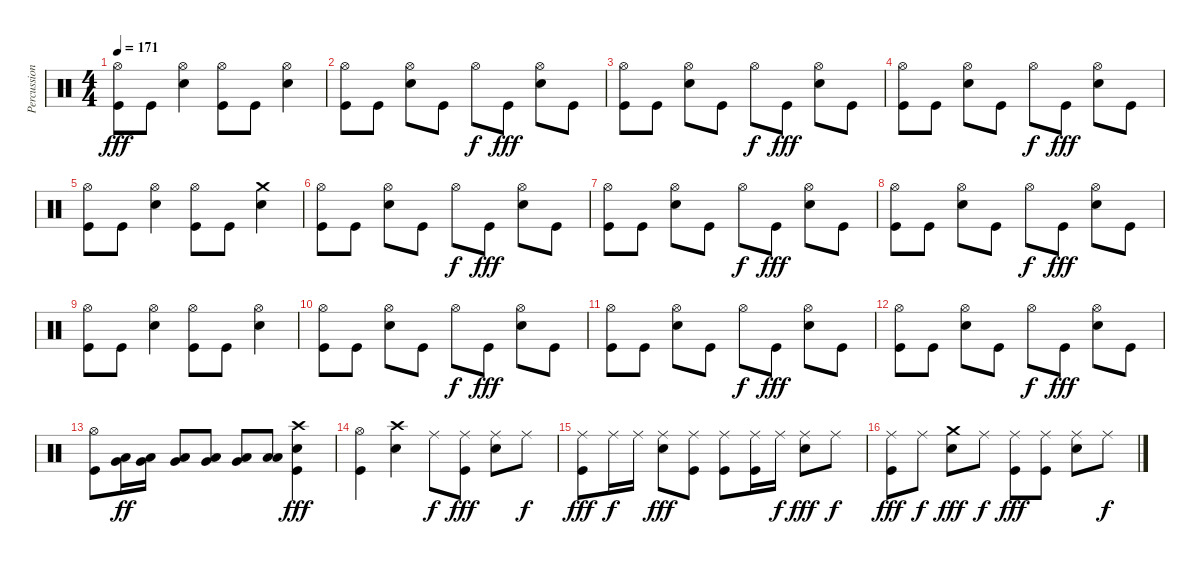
\track ("Percussion" "Percussion") {instrument percussion}
\staff {score}
\articulation defaults
\ts (4 4)
\tempo 171
\clef neutral
\ks c
("Hi-Hat (open)" "Kick (hit)").8{dy fff} "Kick (hit)".8 ("Hi-Hat (open)" "Snare (hit) 2").4 ("Hi-Hat (open)" "Kick (hit)").8 "Kick (hit)".8 ("Hi-Hat (open)" "Snare (hit) 2").4 |
("Hi-Hat (open)" "Kick (hit)").8 "Kick (hit)".8 ("Hi-Hat (open)" "Snare (hit) 2").8 "Kick (hit)".8 "Hi-Hat (open)".8{dy f} "Kick (hit)".8{dy fff} ("Hi-Hat (open)" "Snare (hit) 2").8 "Kick (hit)".8 |
("Hi-Hat (open)" "Kick (hit)").8 "Kick (hit)".8 ("Hi-Hat (open)" "Snare (hit) 2").8 "Kick (hit)".8 "Hi-Hat (open)".8{dy f} "Kick (hit)".8{dy fff} ("Hi-Hat (open)" "Snare (hit) 2").8 "Kick (hit)".8 |
("Hi-Hat (open)" "Kick (hit)").8 "Kick (hit)".8 ("Hi-Hat (open)" "Snare (hit) 2").8 "Kick (hit)".8 "Hi-Hat (open)".8{dy f} "Kick (hit)".8{dy fff} ("Hi-Hat (open)" "Snare (hit) 2").8 "Kick (hit)".8 |
("Hi-Hat (open)" "Kick (hit)").8 "Kick (hit)".8 ("Hi-Hat (open)" "Snare (hit) 2").4 ("Hi-Hat (open)" "Kick (hit)").8 "Kick (hit)".8 ("Crash medium (hit)" "Snare (hit) 2").4 |
("Hi-Hat (open)" "Kick (hit)").8 "Kick (hit)".8 ("Hi-Hat (open)" "Snare (hit) 2").8 "Kick (hit)".8 "Hi-Hat (open)".8{dy f} "Kick (hit)".8{dy fff} ("Hi-Hat (open)" "Snare (hit) 2").8 "Kick (hit)".8 |
("Hi-Hat (open)" "Kick (hit)").8 "Kick (hit)".8 ("Hi-Hat (open)" "Snare (hit) 2").8 "Kick (hit)".8 "Hi-Hat (open)".8{dy f} "Kick (hit)".8{dy fff} ("Hi-Hat (open)" "Snare (hit) 2").8 "Kick (hit)".8 |
("Hi-Hat (open)" "Kick (hit)").8 "Kick (hit)".8 ("Hi-Hat (open)" "Snare (hit) 2").8 "Kick (hit)".8 "Hi-Hat (open)".8{dy f} "Kick (hit)".8{dy fff} ("Hi-Hat (open)" "Snare (hit) 2").8 "Kick (hit)".8 |
("Hi-Hat (open)" "Kick (hit)").8 "Kick (hit)".8 ("Hi-Hat (open)" "Snare (hit) 2").4 ("Hi-Hat (open)" "Kick (hit)").8 "Kick (hit)".8 ("Hi-Hat (open)" "Snare (hit) 2").4 |
("Hi-Hat (open)" "Kick (hit)").8 "Kick (hit)".8 ("Hi-Hat (open)" "Snare (hit) 2").8 "Kick (hit)".8 "Hi-Hat (open)".8{dy f} "Kick (hit)".8{dy fff} ("Hi-Hat (open)" "Snare (hit) 2").8 "Kick (hit)".8 |
("Hi-Hat (open)" "Kick (hit)").8 "Kick (hit)".8 ("Hi-Hat (open)" "Snare (hit) 2").8 "Kick (hit)".8 "Hi-Hat (open)".8{dy f} "Kick (hit)".8{dy fff} ("Hi-Hat (open)" "Snare (hit) 2").8 "Kick (hit)".8 |
("Hi-Hat (open)" "Kick (hit)").8 "Kick (hit)".8 ("Hi-Hat (open)" "Snare (hit) 2").8 "Kick (hit)".8 "Hi-Hat (open)".8{dy f} "Kick (hit)".8{dy fff} ("Hi-Hat (open)" "Snare (hit) 2").8 "Kick (hit)".8 |
("Hi-Hat (open)" "Kick (hit)").8 ("Very Low Tom (hit)" "Low Tom (hit)").16{dy ff} ("Very Low Tom (hit)" "Low Tom (hit)").16 ("Very Low Tom (hit)" "Low Tom (hit)").8 ("Low Floor Tom (hit)" "Very Low Tom (hit)").8 ("Low Floor Tom (hit)" "Very Low Tom (hit)").8 ("Low Floor Tom (hit)" "Low Floor Tom (hit)").8 ("Crash high (hit)" "Snare (hit) 2" "Kick (hit)").4{dy fff} |
("Hi-Hat (open)" "Kick (hit)").4 ("Crash high (hit)" "Snare (hit) 2").4 "Ride (middle)".8{dy f} ("Ride (middle)" "Kick (hit)").8{dy fff} ("Ride (middle)" "Snare (hit) 2").8 "Ride (middle)".8{dy f} |
("Ride (middle)" "Kick (hit)").8{dy fff} "Ride (middle)".16{dy f} "Ride (middle)".16 ("Ride (middle)" "Snare (hit) 2").8{dy fff} ("Ride (middle)" "Kick (hit)").8 ("Ride (middle)" "Kick (hit)").8 ("Ride (middle)" "Kick (hit)").16 "Ride (middle)".16{dy f} ("Ride (middle)" "Snare (hit) 2").8{dy fff} "Ride (middle)".8{dy f} |
("Ride (middle)" "Kick (hit)").8{dy fff} "Ride (middle)".8{dy f} ("Crash medium (hit)" "Snare (hit) 2").8{dy fff} "Ride (middle)".8{dy f} ("Ride (middle)" "Kick (hit)").8{dy fff} ("Ride (middle)" "Kick (hit)").8 ("Ride (middle)" "Snare (hit) 2").8 "Ride (middle)".8{dy f}
